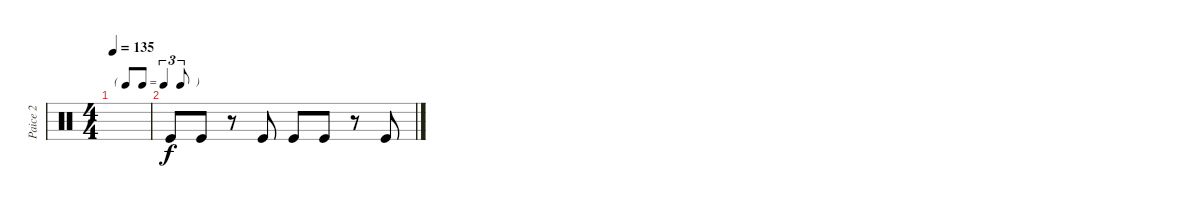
\track ("Paice 2" "Paice 2") {instrument percussion}
\staff {score}
\articulation defaults
\ts (4 4)
\tf triplet8th
\tempo 135
\clef neutral
\ks c
|
"Kick (hit)".8 "Kick (hit)".8 r.8 "Kick (hit)".8 "Kick (hit)".8 "Kick (hit)".8 r.8 "Kick (hit)".8
